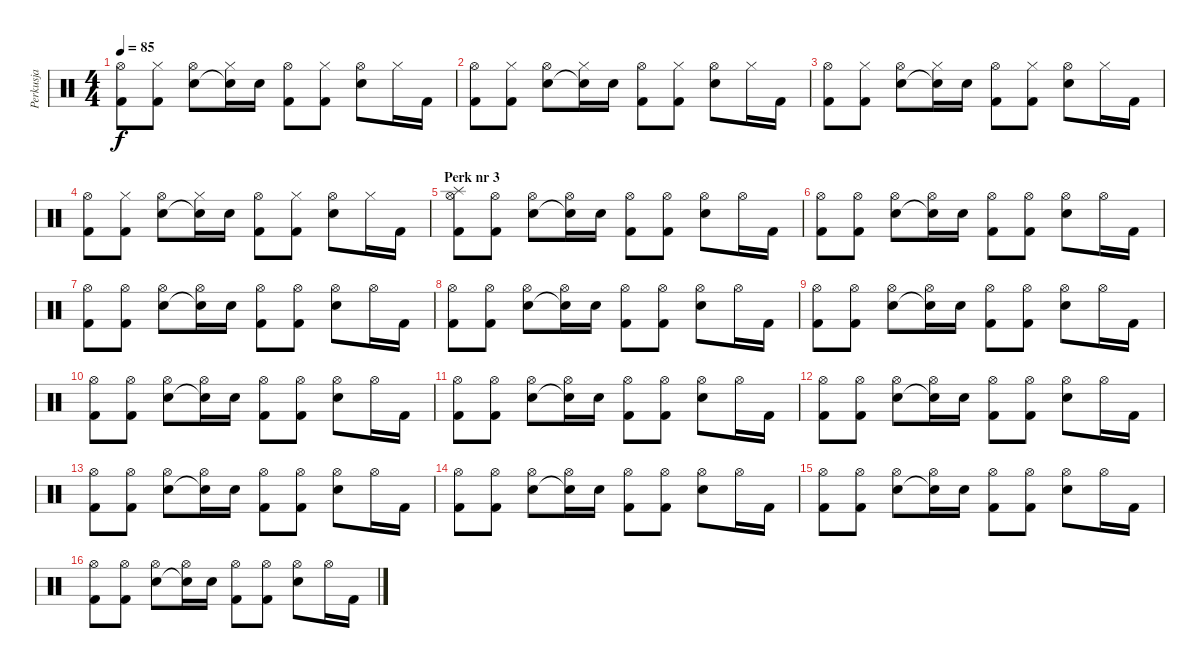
\track ("Perkusja" "Perkusja") {instrument percussion}
\staff {score}
\articulation defaults
\ts (4 4)
\tempo 85
\clef neutral
\ks c
("Kick (hit) 2" "Hi-Hat (open)").8{dy f} ("Kick (hit) 2" "Hi-Hat (closed)").8 ("Snare (hit) 2" "Hi-Hat (open)").8 ("Snare (hit)"{t} "Hi-Hat (closed)").16 "Snare (hit) 2".16 ("Kick (hit) 2" "Hi-Hat (open)").8 ("Kick (hit) 2" "Hi-Hat (closed)").8 ("Snare (hit) 2" "Hi-Hat (open)").8 "Hi-Hat (closed)".16 "Kick (hit) 2".16 |
("Kick (hit) 2" "Hi-Hat (open)").8 ("Kick (hit) 2" "Hi-Hat (closed)").8 ("Snare (hit) 2" "Hi-Hat (open)").8 ("Snare (hit)"{t} "Hi-Hat (closed)").16 "Snare (hit) 2".16 ("Kick (hit) 2" "Hi-Hat (open)").8 ("Kick (hit) 2" "Hi-Hat (closed)").8 ("Snare (hit) 2" "Hi-Hat (open)").8 "Hi-Hat (closed)".16 "Kick (hit) 2".16 |
("Kick (hit) 2" "Hi-Hat (open)").8 ("Kick (hit) 2" "Hi-Hat (closed)").8 ("Snare (hit) 2" "Hi-Hat (open)").8 ("Snare (hit)"{t} "Hi-Hat (closed)").16 "Snare (hit) 2".16 ("Kick (hit) 2" "Hi-Hat (open)").8 ("Kick (hit) 2" "Hi-Hat (closed)").8 ("Snare (hit) 2" "Hi-Hat (open)").8 "Hi-Hat (closed)".16 "Kick (hit) 2".16 |
("Kick (hit) 2" "Hi-Hat (open)").8 ("Kick (hit) 2" "Hi-Hat (closed)").8 ("Snare (hit) 2" "Hi-Hat (open)").8 ("Snare (hit)"{t} "Hi-Hat (closed)").16 "Snare (hit) 2".16 ("Kick (hit) 2" "Hi-Hat (open)").8 ("Kick (hit) 2" "Hi-Hat (closed)").8 ("Snare (hit) 2" "Hi-Hat (open)").8 "Hi-Hat (closed)".16 "Kick (hit) 2".16 |
\section ("" "Perk nr 3")
("Splash (hit)" "Kick (hit) 2" "Hi-Hat (open)").8 ("Kick (hit) 2" "Hi-Hat (open)").8 ("Snare (hit) 2" "Hi-Hat (open)").8 ("Snare (hit)"{t} "Hi-Hat (open)").16 "Snare (hit) 2".16 ("Kick (hit) 2" "Hi-Hat (open)").8 ("Kick (hit) 2" "Hi-Hat (open)").8 ("Snare (hit) 2" "Hi-Hat (open)").8 "Hi-Hat (open)".16 "Kick (hit) 2".16 |
("Kick (hit) 2" "Hi-Hat (open)").8 ("Kick (hit) 2" "Hi-Hat (open)").8 ("Snare (hit) 2" "Hi-Hat (open)").8 ("Snare (hit)"{t} "Hi-Hat (open)").16 "Snare (hit) 2".16 ("Kick (hit) 2" "Hi-Hat (open)").8 ("Kick (hit) 2" "Hi-Hat (open)").8 ("Snare (hit) 2" "Hi-Hat (open)").8 "Hi-Hat (open)".16 "Kick (hit) 2".16 |
("Kick (hit) 2" "Hi-Hat (open)").8 ("Kick (hit) 2" "Hi-Hat (open)").8 ("Snare (hit) 2" "Hi-Hat (open)").8 ("Snare (hit)"{t} "Hi-Hat (open)").16 "Snare (hit) 2".16 ("Kick (hit) 2" "Hi-Hat (open)").8 ("Kick (hit) 2" "Hi-Hat (open)").8 ("Snare (hit) 2" "Hi-Hat (open)").8 "Hi-Hat (open)".16 "Kick (hit) 2".16 |
("Kick (hit) 2" "Hi-Hat (open)").8 ("Kick (hit) 2" "Hi-Hat (open)").8 ("Snare (hit) 2" "Hi-Hat (open)").8 ("Snare (hit)"{t} "Hi-Hat (open)").16 "Snare (hit) 2".16 ("Kick (hit) 2" "Hi-Hat (open)").8 ("Kick (hit) 2" "Hi-Hat (open)").8 ("Snare (hit) 2" "Hi-Hat (open)").8 "Hi-Hat (open)".16 "Kick (hit) 2".16 |
("Kick (hit) 2" "Hi-Hat (open)").8 ("Kick (hit) 2" "Hi-Hat (open)").8 ("Snare (hit) 2" "Hi-Hat (open)").8 ("Snare (hit)"{t} "Hi-Hat (open)").16 "Snare (hit) 2".16 ("Kick (hit) 2" "Hi-Hat (open)").8 ("Kick (hit) 2" "Hi-Hat (open)").8 ("Snare (hit) 2" "Hi-Hat (open)").8 "Hi-Hat (open)".16 "Kick (hit) 2".16 |
("Kick (hit) 2" "Hi-Hat (open)").8 ("Kick (hit) 2" "Hi-Hat (open)").8 ("Snare (hit) 2" "Hi-Hat (open)").8 ("Snare (hit)"{t} "Hi-Hat (open)").16 "Snare (hit) 2".16 ("Kick (hit) 2" "Hi-Hat (open)").8 ("Kick (hit) 2" "Hi-Hat (open)").8 ("Snare (hit) 2" "Hi-Hat (open)").8 "Hi-Hat (open)".16 "Kick (hit) 2".16 |
("Kick (hit) 2" "Hi-Hat (open)").8 ("Kick (hit) 2" "Hi-Hat (open)").8 ("Snare (hit) 2" "Hi-Hat (open)").8 ("Snare (hit)"{t} "Hi-Hat (open)").16 "Snare (hit) 2".16 ("Kick (hit) 2" "Hi-Hat (open)").8 ("Kick (hit) 2" "Hi-Hat (open)").8 ("Snare (hit) 2" "Hi-Hat (open)").8 "Hi-Hat (open)".16 "Kick (hit) 2".16 |
("Kick (hit) 2" "Hi-Hat (open)").8 ("Kick (hit) 2" "Hi-Hat (open)").8 ("Snare (hit) 2" "Hi-Hat (open)").8 ("Snare (hit)"{t} "Hi-Hat (open)").16 "Snare (hit) 2".16 ("Kick (hit) 2" "Hi-Hat (open)").8 ("Kick (hit) 2" "Hi-Hat (open)").8 ("Snare (hit) 2" "Hi-Hat (open)").8 "Hi-Hat (open)".16 "Kick (hit) 2".16 |
("Kick (hit) 2" "Hi-Hat (open)").8 ("Kick (hit) 2" "Hi-Hat (open)").8 ("Snare (hit) 2" "Hi-Hat (open)").8 ("Snare (hit)"{t} "Hi-Hat (open)").16 "Snare (hit) 2".16 ("Kick (hit) 2" "Hi-Hat (open)").8 ("Kick (hit) 2" "Hi-Hat (open)").8 ("Snare (hit) 2" "Hi-Hat (open)").8 "Hi-Hat (open)".16 "Kick (hit) 2".16 |
("Kick (hit) 2" "Hi-Hat (open)").8 ("Kick (hit) 2" "Hi-Hat (open)").8 ("Snare (hit) 2" "Hi-Hat (open)").8 ("Snare (hit)"{t} "Hi-Hat (open)").16 "Snare (hit) 2".16 ("Kick (hit) 2" "Hi-Hat (open)").8 ("Kick (hit) 2" "Hi-Hat (open)").8 ("Snare (hit) 2" "Hi-Hat (open)").8 "Hi-Hat (open)".16 "Kick (hit) 2".16 |
("Kick (hit) 2" "Hi-Hat (open)").8 ("Kick (hit) 2" "Hi-Hat (open)").8 ("Snare (hit) 2" "Hi-Hat (open)").8 ("Snare (hit)"{t} "Hi-Hat (open)").16 "Snare (hit) 2".16 ("Kick (hit) 2" "Hi-Hat (open)").8 ("Kick (hit) 2" "Hi-Hat (open)").8 ("Snare (hit) 2" "Hi-Hat (open)").8 "Hi-Hat (open)".16 "Kick (hit) 2".16 |
("Kick (hit) 2" "Hi-Hat (open)").8 ("Kick (hit) 2" "Hi-Hat (open)").8 ("Snare (hit) 2" "Hi-Hat (open)").8 ("Snare (hit)"{t} "Hi-Hat (open)").16 "Snare (hit) 2".16 ("Kick (hit) 2" "Hi-Hat (open)").8 ("Kick (hit) 2" "Hi-Hat (open)").8 ("Snare (hit) 2" "Hi-Hat (open)").8 "Hi-Hat (open)".16 "Kick (hit) 2".16
